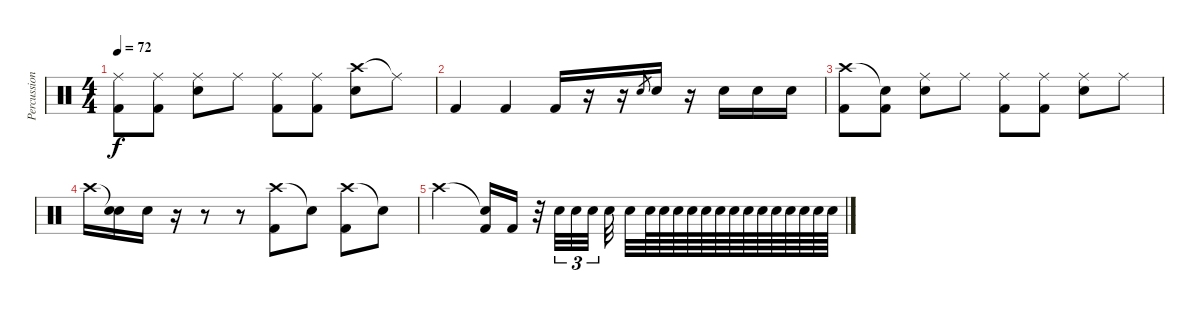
\track ("Percussion" "Percussion") {instrument percussion}
\staff {score}
\articulation defaults
\ts (4 4)
\tempo 72
\clef neutral
\ks c
("Ride (middle)" "Kick (hit) 2").8{dy f} ("Ride (middle)" "Kick (hit) 2").8 ("Ride (middle)" "Electric Snare (hit)").8 "Ride (middle)".8 ("Ride (middle)" "Kick (hit) 2").8 ("Ride (middle)" "Kick (hit) 2").8 ("Crash high (hit)" "Electric Snare (hit)").8 "Ride (middle)"{t}.8 |
"Kick (hit) 2".4 "Kick (hit) 2".4 "Kick (hit) 2".16 r.16 r.16 "Electric Snare (hit)".8{gr} "Electric Snare (hit)".16 r.16 "Electric Snare (hit)".16 "Electric Snare (hit)".16 "Electric Snare (hit)".16 |
("Crash high (hit)" "Kick (hit) 2").8 ("Snare (hit)"{t} "Kick (hit) 2").8 ("Ride (middle)" "Electric Snare (hit)").8 "Ride (middle)".8 ("Ride (middle)" "Kick (hit) 2").8 ("Ride (middle)" "Kick (hit) 2").8 ("Ride (middle)" "Electric Snare (hit)").8 "Ride (middle)".8 |
"Crash high (hit)".16 ("Snare (hit)"{t} "Electric Snare (hit)").16 "Electric Snare (hit)".16 r.16 r.8 r.8 ("Crash high (hit)" "Kick (hit) 2").8 "Snare (hit)"{t}.8 ("Crash high (hit)" "Kick (hit) 2").8 "Snare (hit)"{t}.8 |
"Crash high (hit)".2 ("Snare (hit)"{t} "Kick (hit) 2").16 "Kick (hit) 2".16 r.32 "Electric Snare (hit)".32{tu (3 2)} "Electric Snare (hit)".32{tu (3 2)} "Electric Snare (hit)".32{tu (3 2) beam splitsecondary} "Electric Snare (hit)".32 "Electric Snare (hit)".32 "Electric Snare (hit)".64 "Electric Snare (hit)".64 "Electric Snare (hit)".64 "Electric Snare (hit)".64 "Electric Snare (hit)".64 "Electric Snare (hit)".64 "Electric Snare (hit)".64 "Electric Snare (hit)".64 "Electric Snare (hit)".64 "Electric Snare (hit)".64 "Electric Snare (hit)".64 "Electric Snare (hit)".64 "Electric Snare (hit)".64 "Electric Snare (hit)".64
